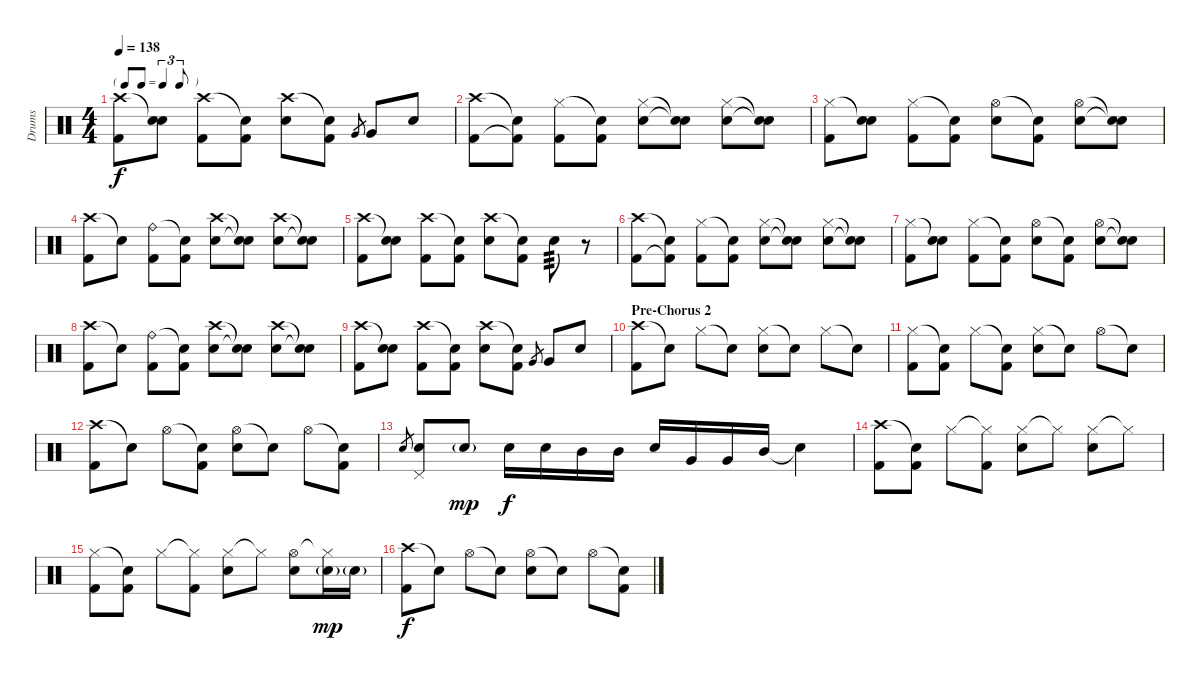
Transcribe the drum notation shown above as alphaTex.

\track ("Drums" "Drums") {instrument percussion}
\staff {score}
\articulation defaults
\ts (4 4)
\tf triplet8th
\tempo 138
\clef neutral
\ks c
("Crash high (hit)" "Kick (hit) 2").8{dy f} ("Snare (hit)"{t} "Electric Snare (hit)").8 ("Crash high (hit)" "Kick (hit) 2").8 ("Snare (hit)"{t} "Kick (hit) 2").8 ("Crash high (hit)" "Electric Snare (hit)").8 ("Snare (hit)"{t} "Kick (hit) 2").8 "Very Low Tom (hit)".8{gr} "Very Low Tom (hit)".8 "Electric Snare (hit)".8 |
("Crash high (hit)" "Kick (hit) 2").8 ("Snare (hit)"{t} "Kick (hit) 2"{t}).8 ("Hi-Hat (closed)" "Kick (hit) 2").8 ("Snare (hit)"{t} "Kick (hit) 2").8 ("Hi-Hat (closed)" "Electric Snare (hit)").8 ("Snare (hit)"{t} "Snare (hit)"{t}).8 ("Hi-Hat (closed)" "Electric Snare (hit)").8 ("Snare (hit)"{t} "Snare (hit)"{t}).8 |
("Hi-Hat (closed)" "Kick (hit) 2").8 ("Snare (hit)"{t} "Electric Snare (hit)").8 ("Hi-Hat (closed)" "Kick (hit) 2").8 ("Snare (hit)"{t} "Kick (hit) 2").8 ("Hi-Hat (open)" "Electric Snare (hit)").8 ("Snare (hit)"{t} "Kick (hit) 2").8 ("Hi-Hat (open)" "Electric Snare (hit)").8 ("Snare (hit)"{t} "Snare (hit)"{t}).8 |
("Crash high (hit)" "Kick (hit) 2").8 "Snare (hit)"{t}.8 ("Ride (bell)" "Kick (hit) 2").8 ("Snare (hit)"{t} "Kick (hit) 2").8 ("Crash high (hit)" "Electric Snare (hit)").8 ("Snare (hit)"{t} "Snare (hit)"{t}).8 ("Crash high (hit)" "Electric Snare (hit)").8 ("Snare (hit)"{t} "Snare (hit)"{t}).8 |
("Crash high (hit)" "Kick (hit) 2").8 ("Snare (hit)"{t} "Electric Snare (hit)").8 ("Crash high (hit)" "Kick (hit) 2").8 ("Snare (hit)"{t} "Kick (hit) 2").8 ("Crash high (hit)" "Electric Snare (hit)").8 ("Snare (hit)"{t} "Kick (hit) 2").8 "Electric Snare (hit)".8{tp 3} r.8 |
("Crash high (hit)" "Kick (hit) 2").8 ("Snare (hit)"{t} "Kick (hit) 2"{t}).8 ("Hi-Hat (closed)" "Kick (hit) 2").8 ("Snare (hit)"{t} "Kick (hit) 2").8 ("Hi-Hat (closed)" "Electric Snare (hit)").8 ("Snare (hit)"{t} "Snare (hit)"{t}).8 ("Hi-Hat (closed)" "Electric Snare (hit)").8 ("Snare (hit)"{t} "Snare (hit)"{t}).8 |
("Hi-Hat (closed)" "Kick (hit) 2").8 ("Snare (hit)"{t} "Electric Snare (hit)").8 ("Hi-Hat (closed)" "Kick (hit) 2").8 ("Snare (hit)"{t} "Kick (hit) 2").8 ("Hi-Hat (open)" "Electric Snare (hit)").8 ("Snare (hit)"{t} "Kick (hit) 2").8 ("Hi-Hat (open)" "Electric Snare (hit)").8 ("Snare (hit)"{t} "Snare (hit)"{t}).8 |
("Crash high (hit)" "Kick (hit) 2").8 "Snare (hit)"{t}.8 ("Ride (bell)" "Kick (hit) 2").8 ("Snare (hit)"{t} "Kick (hit) 2").8 ("Crash high (hit)" "Electric Snare (hit)").8 ("Snare (hit)"{t} "Snare (hit)"{t}).8 ("Crash high (hit)" "Electric Snare (hit)").8 ("Snare (hit)"{t} "Snare (hit)"{t}).8 |
("Crash high (hit)" "Kick (hit) 2").8 ("Snare (hit)"{t} "Electric Snare (hit)").8 ("Crash high (hit)" "Kick (hit) 2").8 ("Snare (hit)"{t} "Kick (hit) 2").8 ("Crash high (hit)" "Electric Snare (hit)").8 ("Snare (hit)"{t} "Kick (hit) 2").8 "Very Low Tom (hit)".8{gr} "Very Low Tom (hit)".8 "Electric Snare (hit)".8 |
\section ("" "Pre-Chorus 2")
("Crash high (hit)" "Kick (hit) 2").8 "Snare (hit)"{t}.8 "Hi-Hat (closed)".8 "Snare (hit)"{t}.8 ("Hi-Hat (closed)" "Electric Snare (hit)").8 "Snare (hit)"{t}.8 "Hi-Hat (closed)".8 "Snare (hit)"{t}.8 |
("Hi-Hat (closed)" "Kick (hit) 2").8 ("Snare (hit)"{t} "Kick (hit) 2").8 "Hi-Hat (closed)".8 ("Snare (hit)"{t} "Kick (hit) 2").8 ("Hi-Hat (closed)" "Electric Snare (hit)").8 "Snare (hit)"{t}.8 "Hi-Hat (open)".8 "Snare (hit)"{t}.8 |
("Crash high (hit)" "Kick (hit) 2").8 "Snare (hit)"{t}.8 "Hi-Hat (open)".8 ("Snare (hit)"{t} "Kick (hit) 2").8 ("Hi-Hat (open)" "Electric Snare (hit)").8 "Snare (hit)"{t}.8 "Hi-Hat (open)".8 ("Snare (hit)"{t} "Kick (hit) 2").8 |
"Electric Snare (hit)".8{gr} ("Pedal Hi-Hat (hit)" "Electric Snare (hit)").8 "Electric Snare (hit)"{g}.8{dy mp} "Electric Snare (hit)".16{dy f} "Electric Snare (hit)".16 "Mid Tom (hit)".16 "Mid Tom (hit)".16 "Electric Snare (hit)".16 "Very Low Tom (hit)".16 "Very Low Tom (hit)".16 "Mid Tom (hit)".16 "Snare (hit)"{t}.4 |
("Crash high (hit)" "Kick (hit) 2").8 ("Snare (hit)"{t} "Kick (hit) 2").8 "Hi-Hat (closed)".8 ("Hi-Hat (closed)"{t} "Kick (hit) 2").8 ("Hi-Hat (closed)" "Electric Snare (hit)").8 "Hi-Hat (closed)"{t}.8 ("Hi-Hat (closed)" "Electric Snare (hit)").8 "Hi-Hat (closed)"{t}.8 |
("Hi-Hat (closed)" "Kick (hit) 2").8 ("Snare (hit)"{t} "Kick (hit) 2").8 "Hi-Hat (closed)".8 ("Hi-Hat (closed)"{t} "Kick (hit) 2").8 ("Hi-Hat (closed)" "Electric Snare (hit)").8 "Hi-Hat (closed)"{t}.8 ("Hi-Hat (open)" "Electric Snare (hit)").8 ("Hi-Hat (closed)"{t} "Electric Snare (hit)"{g}).16{dy mp} "Electric Snare (hit)"{g}.16 |
("Crash high (hit)" "Kick (hit) 2").8{dy f} "Snare (hit)"{t}.8 "Hi-Hat (open)".8 "Snare (hit)"{t}.8 ("Hi-Hat (open)" "Electric Snare (hit)").8 "Snare (hit)"{t}.8 "Hi-Hat (open)".8 ("Snare (hit)"{t} "Kick (hit) 2").8
